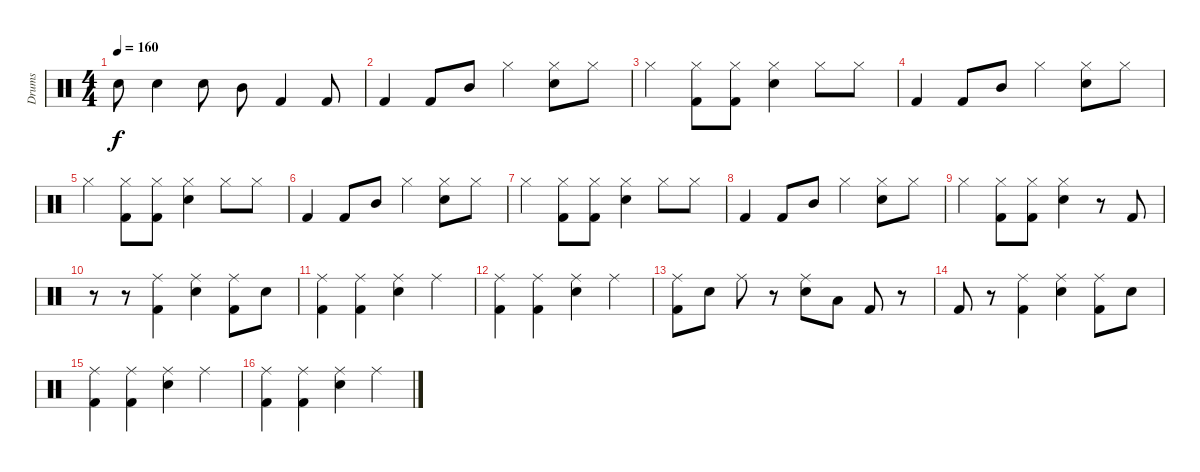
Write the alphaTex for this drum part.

\track ("Drums" "Drums") {instrument percussion}
\staff {score}
\articulation defaults
\ts (4 4)
\tempo 160
\clef neutral
\ks c "Snare (hit) 2".8{dy f} "Snare (hit) 2".4 "Snare (hit) 2".8 "Mid Tom (hit)".8 "Kick (hit) 2".4 "Kick (hit) 2".8
|
"Kick (hit) 2".4 "Kick (hit) 2".8 "Mid Tom (hit)".8 "Hi-Hat (closed)".4 ("Hi-Hat (closed)" "Snare (hit) 2").8 "Hi-Hat (closed)".8 |
"Hi-Hat (closed)".4 ("Hi-Hat (closed)" "Kick (hit) 2").8 ("Hi-Hat (closed)" "Kick (hit) 2").8 ("Hi-Hat (closed)" "Snare (hit) 2").4 "Hi-Hat (closed)".8 "Hi-Hat (closed)".8 |
"Kick (hit) 2".4 "Kick (hit) 2".8 "Mid Tom (hit)".8 "Hi-Hat (closed)".4 ("Hi-Hat (closed)" "Snare (hit) 2").8 "Hi-Hat (closed)".8 |
"Hi-Hat (closed)".4 ("Hi-Hat (closed)" "Kick (hit) 2").8 ("Hi-Hat (closed)" "Kick (hit) 2").8 ("Hi-Hat (closed)" "Snare (hit) 2").4 "Hi-Hat (closed)".8 "Hi-Hat (closed)".8 |
"Kick (hit) 2".4 "Kick (hit) 2".8 "Mid Tom (hit)".8 "Hi-Hat (closed)".4 ("Hi-Hat (closed)" "Snare (hit) 2").8 "Hi-Hat (closed)".8 |
"Hi-Hat (closed)".4 ("Hi-Hat (closed)" "Kick (hit) 2").8 ("Hi-Hat (closed)" "Kick (hit) 2").8 ("Hi-Hat (closed)" "Snare (hit) 2").4 "Hi-Hat (closed)".8 "Hi-Hat (closed)".8 |
"Kick (hit) 2".4 "Kick (hit) 2".8 "Mid Tom (hit)".8 "Hi-Hat (closed)".4 ("Hi-Hat (closed)" "Snare (hit) 2").8 "Hi-Hat (closed)".8 |
"Hi-Hat (closed)".4 ("Hi-Hat (closed)" "Kick (hit) 2").8 ("Hi-Hat (closed)" "Kick (hit) 2").8 ("Hi-Hat (closed)" "Snare (hit) 2").4 r.8 "Kick (hit) 2".8 |
r.8 r.8 ("Ride (middle)" "Kick (hit) 2").4 ("Ride (middle)" "Snare (hit) 2").4 ("Ride (middle)" "Kick (hit) 2").8 "Snare (hit) 2".8 |
("Ride (middle)" "Kick (hit) 2").4 ("Ride (middle)" "Kick (hit) 2").4 ("Ride (middle)" "Snare (hit) 2").4 "Ride (middle)".4 |
("Ride (middle)" "Kick (hit) 2").4 ("Ride (middle)" "Kick (hit) 2").4 ("Ride (middle)" "Snare (hit) 2").4 "Ride (middle)".4 |
("Ride (middle)" "Kick (hit) 2").8 "Snare (hit) 2".8 "Ride (middle)".8 r.8 ("Ride (middle)" "Snare (hit) 2").8 "Low Tom (hit)".8 "Kick (hit) 2".8 r.8 |
"Kick (hit) 2".8 r.8 ("Ride (middle)" "Kick (hit) 2").4 ("Ride (middle)" "Snare (hit) 2").4 ("Ride (middle)" "Kick (hit) 2").8 "Snare (hit) 2".8 |
("Ride (middle)" "Kick (hit) 2").4 ("Ride (middle)" "Kick (hit) 2").4 ("Ride (middle)" "Snare (hit) 2").4 "Ride (middle)".4 |
("Ride (middle)" "Kick (hit) 2").4 ("Ride (middle)" "Kick (hit) 2").4 ("Ride (middle)" "Snare (hit) 2").4 "Ride (middle)".4
